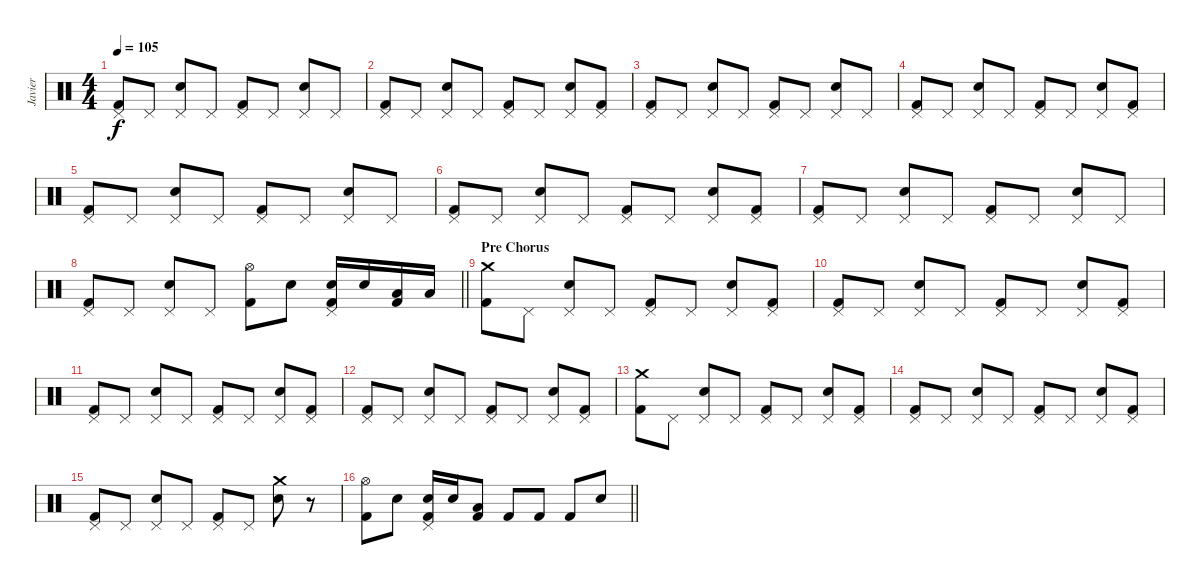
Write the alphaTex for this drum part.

\track ("Javier" "Javier") {instrument percussion}
\staff {score}
\articulation defaults
\ts (4 4)
\tempo 105
\clef neutral
\ks c
("Pedal Hi-Hat (hit)" "Kick (hit) 2").8{dy f} "Pedal Hi-Hat (hit)".8 ("Pedal Hi-Hat (hit)" "Snare (hit) 2").8 "Pedal Hi-Hat (hit)".8 ("Pedal Hi-Hat (hit)" "Kick (hit) 2").8 "Pedal Hi-Hat (hit)".8 ("Pedal Hi-Hat (hit)" "Snare (hit) 2").8 "Pedal Hi-Hat (hit)".8 |
("Pedal Hi-Hat (hit)" "Kick (hit) 2").8 "Pedal Hi-Hat (hit)".8 ("Pedal Hi-Hat (hit)" "Snare (hit) 2").8 "Pedal Hi-Hat (hit)".8 ("Pedal Hi-Hat (hit)" "Kick (hit) 2").8 "Pedal Hi-Hat (hit)".8 ("Pedal Hi-Hat (hit)" "Snare (hit) 2").8 ("Pedal Hi-Hat (hit)" "Kick (hit) 2").8 |
("Pedal Hi-Hat (hit)" "Kick (hit) 2").8 "Pedal Hi-Hat (hit)".8 ("Pedal Hi-Hat (hit)" "Snare (hit) 2").8 "Pedal Hi-Hat (hit)".8 ("Pedal Hi-Hat (hit)" "Kick (hit) 2").8 "Pedal Hi-Hat (hit)".8 ("Pedal Hi-Hat (hit)" "Snare (hit) 2").8 "Pedal Hi-Hat (hit)".8 |
("Pedal Hi-Hat (hit)" "Kick (hit) 2").8 "Pedal Hi-Hat (hit)".8 ("Pedal Hi-Hat (hit)" "Snare (hit) 2").8 "Pedal Hi-Hat (hit)".8 ("Pedal Hi-Hat (hit)" "Kick (hit) 2").8 "Pedal Hi-Hat (hit)".8 ("Pedal Hi-Hat (hit)" "Snare (hit) 2").8 ("Pedal Hi-Hat (hit)" "Kick (hit) 2").8 |
("Pedal Hi-Hat (hit)" "Kick (hit) 2").8 "Pedal Hi-Hat (hit)".8 ("Pedal Hi-Hat (hit)" "Snare (hit) 2").8 "Pedal Hi-Hat (hit)".8 ("Pedal Hi-Hat (hit)" "Kick (hit) 2").8 "Pedal Hi-Hat (hit)".8 ("Pedal Hi-Hat (hit)" "Snare (hit) 2").8 "Pedal Hi-Hat (hit)".8 |
("Pedal Hi-Hat (hit)" "Kick (hit) 2").8 "Pedal Hi-Hat (hit)".8 ("Pedal Hi-Hat (hit)" "Snare (hit) 2").8 "Pedal Hi-Hat (hit)".8 ("Pedal Hi-Hat (hit)" "Kick (hit) 2").8 "Pedal Hi-Hat (hit)".8 ("Pedal Hi-Hat (hit)" "Snare (hit) 2").8 ("Pedal Hi-Hat (hit)" "Kick (hit) 2").8 |
("Pedal Hi-Hat (hit)" "Kick (hit) 2").8 "Pedal Hi-Hat (hit)".8 ("Pedal Hi-Hat (hit)" "Snare (hit) 2").8 "Pedal Hi-Hat (hit)".8 ("Pedal Hi-Hat (hit)" "Kick (hit) 2").8 "Pedal Hi-Hat (hit)".8 ("Pedal Hi-Hat (hit)" "Snare (hit) 2").8 "Pedal Hi-Hat (hit)".8 |
\barLineRight lightlight
("Pedal Hi-Hat (hit)" "Kick (hit) 2").8 "Pedal Hi-Hat (hit)".8 ("Pedal Hi-Hat (hit)" "Snare (hit) 2").8 "Pedal Hi-Hat (hit)".8 ("Hi-Hat (open)" "Kick (hit) 2").8 "Snare (hit) 2".8 ("Pedal Hi-Hat (hit)" "Snare (hit) 2" "Kick (hit) 2").16 "Snare (hit) 2".16 ("Low Tom (hit)" "Kick (hit) 2").16 "Low Tom (hit)".16 |
\section ("" "Pre Chorus")
("Crash medium (hit)" "Kick (hit) 2").8 "Pedal Hi-Hat (hit)".8 ("Pedal Hi-Hat (hit)" "Snare (hit) 2").8 "Pedal Hi-Hat (hit)".8 ("Pedal Hi-Hat (hit)" "Kick (hit) 2").8 "Pedal Hi-Hat (hit)".8 ("Pedal Hi-Hat (hit)" "Snare (hit) 2").8 ("Pedal Hi-Hat (hit)" "Kick (hit) 2").8 |
("Pedal Hi-Hat (hit)" "Kick (hit) 2").8 "Pedal Hi-Hat (hit)".8 ("Pedal Hi-Hat (hit)" "Snare (hit) 2").8 "Pedal Hi-Hat (hit)".8 ("Pedal Hi-Hat (hit)" "Kick (hit) 2").8 "Pedal Hi-Hat (hit)".8 ("Pedal Hi-Hat (hit)" "Snare (hit) 2").8 ("Pedal Hi-Hat (hit)" "Kick (hit) 2").8 |
("Pedal Hi-Hat (hit)" "Kick (hit) 2").8 "Pedal Hi-Hat (hit)".8 ("Pedal Hi-Hat (hit)" "Snare (hit) 2").8 "Pedal Hi-Hat (hit)".8 ("Pedal Hi-Hat (hit)" "Kick (hit) 2").8 "Pedal Hi-Hat (hit)".8 ("Pedal Hi-Hat (hit)" "Snare (hit) 2").8 ("Pedal Hi-Hat (hit)" "Kick (hit) 2").8 |
("Pedal Hi-Hat (hit)" "Kick (hit) 2").8 "Pedal Hi-Hat (hit)".8 ("Pedal Hi-Hat (hit)" "Snare (hit) 2").8 "Pedal Hi-Hat (hit)".8 ("Pedal Hi-Hat (hit)" "Kick (hit) 2").8 "Pedal Hi-Hat (hit)".8 ("Pedal Hi-Hat (hit)" "Snare (hit) 2").8 ("Pedal Hi-Hat (hit)" "Kick (hit) 2").8 |
("Crash medium (hit)" "Kick (hit) 2").8 "Pedal Hi-Hat (hit)".8 ("Pedal Hi-Hat (hit)" "Snare (hit) 2").8 "Pedal Hi-Hat (hit)".8 ("Pedal Hi-Hat (hit)" "Kick (hit) 2").8 "Pedal Hi-Hat (hit)".8 ("Pedal Hi-Hat (hit)" "Snare (hit) 2").8 ("Pedal Hi-Hat (hit)" "Kick (hit) 2").8 |
("Pedal Hi-Hat (hit)" "Kick (hit) 2").8 "Pedal Hi-Hat (hit)".8 ("Pedal Hi-Hat (hit)" "Snare (hit) 2").8 "Pedal Hi-Hat (hit)".8 ("Pedal Hi-Hat (hit)" "Kick (hit) 2").8 "Pedal Hi-Hat (hit)".8 ("Pedal Hi-Hat (hit)" "Snare (hit) 2").8 ("Pedal Hi-Hat (hit)" "Kick (hit) 2").8 |
("Pedal Hi-Hat (hit)" "Kick (hit) 2").8 "Pedal Hi-Hat (hit)".8 ("Pedal Hi-Hat (hit)" "Snare (hit) 2").8 "Pedal Hi-Hat (hit)".8 ("Pedal Hi-Hat (hit)" "Kick (hit) 2").8 "Pedal Hi-Hat (hit)".8 ("Crash medium (hit)" "Snare (hit) 2").8 r.8 |
\barLineRight lightlight
("Hi-Hat (open)" "Kick (hit) 2").8 "Snare (hit) 2".8 ("Pedal Hi-Hat (hit)" "Snare (hit) 2" "Kick (hit) 2").16 "Snare (hit) 2".16 ("Low Tom (hit)" "Kick (hit) 2").8 "Kick (hit) 2".8 "Kick (hit) 2".8 "Kick (hit) 2".8 "Snare (hit) 2".8
